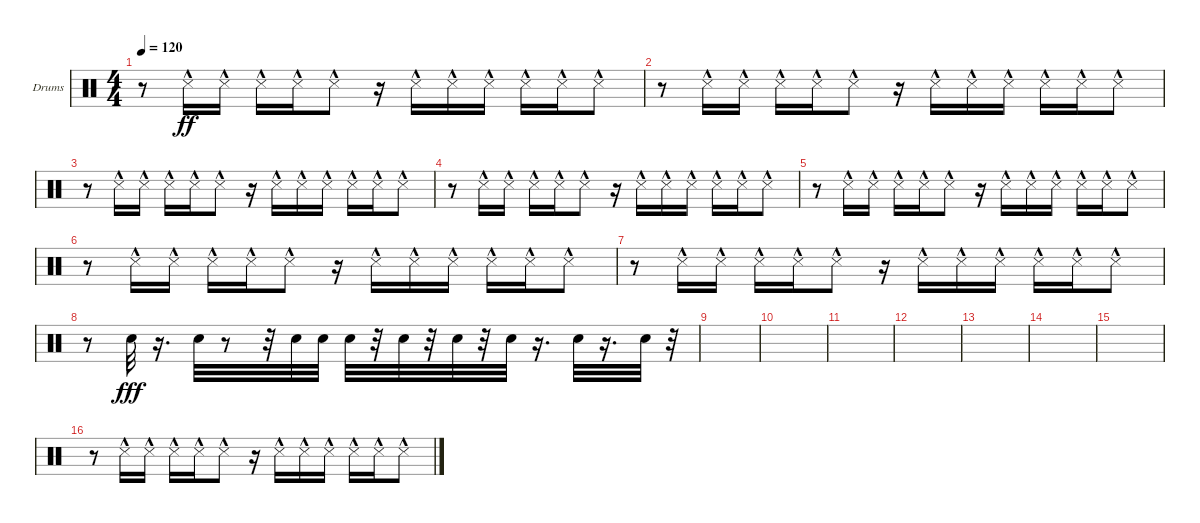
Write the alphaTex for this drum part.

\defaultSystemsLayout 4
\bracketExtendMode groupsimilarinstruments
\firstSystemTrackNameOrientation horizontal
\otherSystemsTrackNameOrientation horizontal
\track ("Drumkit" "Drums") {instrument percussion}
\staff {score}
\articulation defaults
\ts (4 4)
\tempo 120
\clef neutral
\scale
0.333333
\ks c
r.8{dy ff} "Snare (side stick) 3"{hac}.16 "Snare (side stick) 3"{hac}.16 "Snare (side stick) 3"{hac}.16 "Snare (side stick) 3"{hac}.16 "Snare (side stick) 3"{hac}.8 r.16 "Snare (side stick) 3"{hac}.16 "Snare (side stick) 3"{hac}.16 "Snare (side stick) 3"{hac}.16 "Snare (side stick) 3"{hac}.16 "Snare (side stick) 3"{hac}.16 "Snare (side stick) 3"{hac}.8 |
\scale
0.333333 r.8 "Snare (side stick) 3"{hac}.16 "Snare (side stick) 3"{hac}.16 "Snare (side stick) 3"{hac}.16 "Snare (side stick) 3"{hac}.16 "Snare (side stick) 3"{hac}.8 r.16 "Snare (side stick) 3"{hac}.16 "Snare (side stick) 3"{hac}.16 "Snare (side stick) 3"{hac}.16 "Snare (side stick) 3"{hac}.16 "Snare (side stick) 3"{hac}.16 "Snare (side stick) 3"{hac}.8 |
\scale
0.333333 r.8 "Snare (side stick) 3"{hac}.16 "Snare (side stick) 3"{hac}.16 "Snare (side stick) 3"{hac}.16 "Snare (side stick) 3"{hac}.16 "Snare (side stick) 3"{hac}.8 r.16 "Snare (side stick) 3"{hac}.16 "Snare (side stick) 3"{hac}.16 "Snare (side stick) 3"{hac}.16 "Snare (side stick) 3"{hac}.16 "Snare (side stick) 3"{hac}.16 "Snare (side stick) 3"{hac}.8 |
\scale
0.333333 r.8 "Snare (side stick) 3"{hac}.16 "Snare (side stick) 3"{hac}.16 "Snare (side stick) 3"{hac}.16 "Snare (side stick) 3"{hac}.16 "Snare (side stick) 3"{hac}.8 r.16 "Snare (side stick) 3"{hac}.16 "Snare (side stick) 3"{hac}.16 "Snare (side stick) 3"{hac}.16 "Snare (side stick) 3"{hac}.16 "Snare (side stick) 3"{hac}.16 "Snare (side stick) 3"{hac}.8 |
\scale
0.333333 r.8 "Snare (side stick) 3"{hac}.16 "Snare (side stick) 3"{hac}.16 "Snare (side stick) 3"{hac}.16 "Snare (side stick) 3"{hac}.16 "Snare (side stick) 3"{hac}.8 r.16 "Snare (side stick) 3"{hac}.16 "Snare (side stick) 3"{hac}.16 "Snare (side stick) 3"{hac}.16 "Snare (side stick) 3"{hac}.16 "Snare (side stick) 3"{hac}.16 "Snare (side stick) 3"{hac}.8 |
\scale
0.333333 r.8 "Snare (side stick) 3"{hac}.16 "Snare (side stick) 3"{hac}.16 "Snare (side stick) 3"{hac}.16 "Snare (side stick) 3"{hac}.16 "Snare (side stick) 3"{hac}.8 r.16 "Snare (side stick) 3"{hac}.16 "Snare (side stick) 3"{hac}.16 "Snare (side stick) 3"{hac}.16 "Snare (side stick) 3"{hac}.16 "Snare (side stick) 3"{hac}.16 "Snare (side stick) 3"{hac}.8 |
\scale
0.333333 r.8 "Snare (side stick) 3"{hac}.16 "Snare (side stick) 3"{hac}.16 "Snare (side stick) 3"{hac}.16 "Snare (side stick) 3"{hac}.16 "Snare (side stick) 3"{hac}.8 r.16 "Snare (side stick) 3"{hac}.16 "Snare (side stick) 3"{hac}.16 "Snare (side stick) 3"{hac}.16 "Snare (side stick) 3"{hac}.16 "Snare (side stick) 3"{hac}.16 "Snare (side stick) 3"{hac}.8 |
\scale
0.333333 r.8 "Snare (hit) 2".32{dy fff} r.16{d} "Snare (hit) 2".32 r.8 r.32 "Snare (hit) 2".32 "Snare (hit) 2".32 "Snare (hit) 2".32 r.32 "Snare (hit) 2".32 r.32 "Snare (hit) 2".32 r.32 "Snare (hit) 2".32 r.16{d} "Snare (hit) 2".32 r.16{d} "Snare (hit) 2".32 r.32 |
\scale
0.333333 |
\scale
0.333333 |
\scale
0.333333 |
\scale
0.333333 |
\scale
0.333333 |
\scale
0.333333 |
\scale
0.333333 |
\scale
0.333333 r.8 "Snare (side stick) 3"{hac}.16 "Snare (side stick) 3"{hac}.16 "Snare (side stick) 3"{hac}.16 "Snare (side stick) 3"{hac}.16 "Snare (side stick) 3"{hac}.8 r.16 "Snare (side stick) 3"{hac}.16 "Snare (side stick) 3"{hac}.16 "Snare (side stick) 3"{hac}.16 "Snare (side stick) 3"{hac}.16 "Snare (side stick) 3"{hac}.16 "Snare (side stick) 3"{hac}.8
